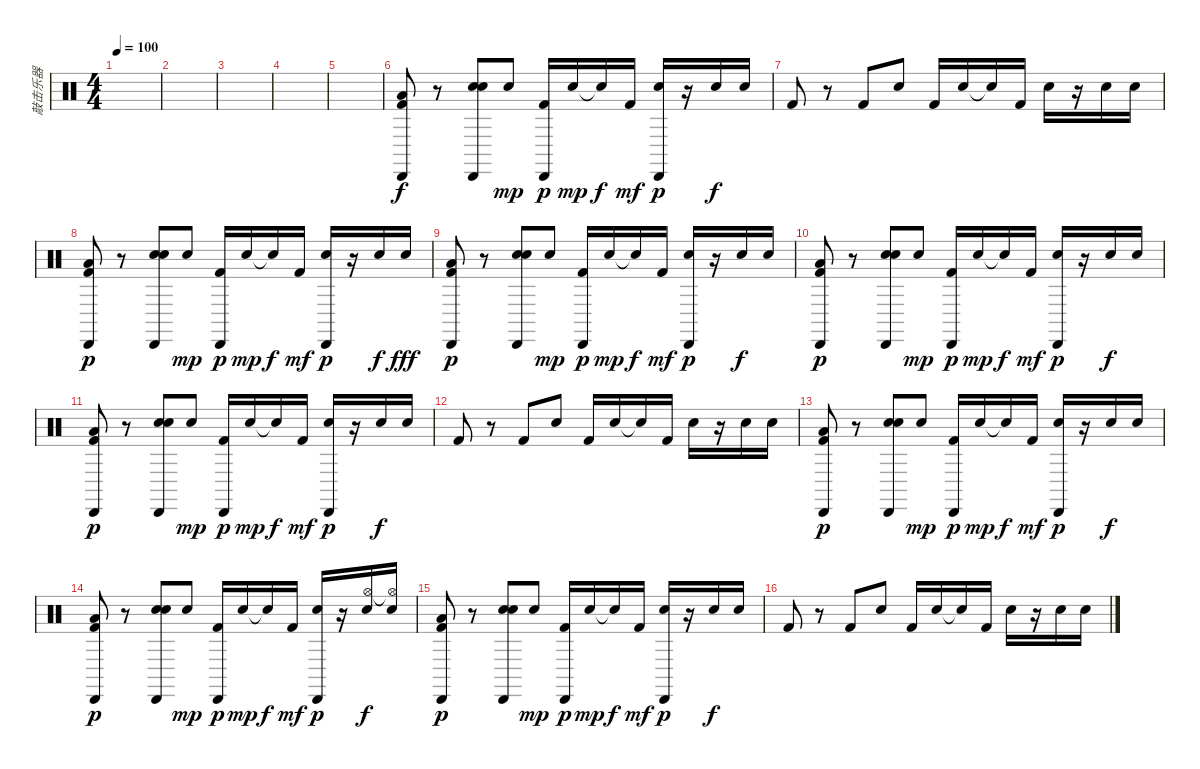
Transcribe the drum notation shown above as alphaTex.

\track ("敲击乐器" "敲击乐器") {instrument percussion}
\staff {score}
\articulation defaults
\ts (4 4)
\tempo 100
\clef neutral
\ks c
|
|
|
|
|
("Kick (hit) 2" "Low Floor Tom (hit)" "Cabasa (hit)").8 r.8 ("Snare (hit) 2" "Electric Snare (hit)" "Cabasa (hit)").8 "Snare (hit) 2".8{dy mp} ("Kick (hit) 2" "Cabasa (hit)").16{dy p} "Snare (hit) 2".16{dy mp} "Snare (hit) 2"{t}.16{dy f} "Kick (hit) 2".16{dy mf} ("Snare (hit) 2" "Cabasa (hit)").16{dy p} r.16 "Electric Snare (hit)".16{dy f} "Snare (hit) 2".16 |
"Kick (hit) 2".8 r.8 "Kick (hit) 2".8 "Snare (hit) 2".8 "Kick (hit) 2".16 "Snare (hit) 2".16 "Snare (hit) 2"{t}.16 "Kick (hit) 2".16 "Snare (hit) 2".16 r.16 "Electric Snare (hit)".16 "Snare (hit) 2".16 |
("Kick (hit) 2" "Low Floor Tom (hit)" "Cabasa (hit)").8{dy p} r.8 ("Snare (hit) 2" "Electric Snare (hit)" "Cabasa (hit)").8 "Snare (hit) 2".8{dy mp} ("Kick (hit) 2" "Cabasa (hit)").16{dy p} "Snare (hit) 2".16{dy mp} "Snare (hit) 2"{t}.16{dy f} "Kick (hit) 2".16{dy mf} ("Snare (hit) 2" "Cabasa (hit)").16{dy p} r.16 "Electric Snare (hit)".16{dy f} "Snare (hit) 2".16{dy fff} |
("Kick (hit) 2" "Low Floor Tom (hit)" "Cabasa (hit)").8{dy p} r.8 ("Snare (hit) 2" "Electric Snare (hit)" "Cabasa (hit)").8 "Snare (hit) 2".8{dy mp} ("Kick (hit) 2" "Cabasa (hit)").16{dy p} "Snare (hit) 2".16{dy mp} "Snare (hit) 2"{t}.16{dy f} "Kick (hit) 2".16{dy mf} ("Snare (hit) 2" "Cabasa (hit)").16{dy p} r.16 "Electric Snare (hit)".16{dy f} "Snare (hit) 2".16 |
("Kick (hit) 2" "Low Floor Tom (hit)" "Cabasa (hit)").8{dy p} r.8 ("Snare (hit) 2" "Electric Snare (hit)" "Cabasa (hit)").8 "Snare (hit) 2".8{dy mp} ("Kick (hit) 2" "Cabasa (hit)").16{dy p} "Snare (hit) 2".16{dy mp} "Snare (hit) 2"{t}.16{dy f} "Kick (hit) 2".16{dy mf} ("Snare (hit) 2" "Cabasa (hit)").16{dy p} r.16 "Electric Snare (hit)".16{dy f} "Snare (hit) 2".16 |
("Kick (hit) 2" "Low Floor Tom (hit)" "Cabasa (hit)").8{dy p} r.8 ("Snare (hit) 2" "Electric Snare (hit)" "Cabasa (hit)").8 "Snare (hit) 2".8{dy mp} ("Kick (hit) 2" "Cabasa (hit)").16{dy p} "Snare (hit) 2".16{dy mp} "Snare (hit) 2"{t}.16{dy f} "Kick (hit) 2".16{dy mf} ("Snare (hit) 2" "Cabasa (hit)").16{dy p} r.16 "Electric Snare (hit)".16{dy f} "Snare (hit) 2".16 |
"Kick (hit) 2".8 r.8 "Kick (hit) 2".8 "Snare (hit) 2".8 "Kick (hit) 2".16 "Snare (hit) 2".16 "Snare (hit) 2"{t}.16 "Kick (hit) 2".16 "Snare (hit) 2".16 r.16 "Electric Snare (hit)".16 "Snare (hit) 2".16 |
("Kick (hit) 2" "Low Floor Tom (hit)" "Cabasa (hit)").8{dy p} r.8 ("Snare (hit) 2" "Electric Snare (hit)" "Cabasa (hit)").8 "Snare (hit) 2".8{dy mp} ("Kick (hit) 2" "Cabasa (hit)").16{dy p} "Snare (hit) 2".16{dy mp} "Snare (hit) 2"{t}.16{dy f} "Kick (hit) 2".16{dy mf} ("Snare (hit) 2" "Cabasa (hit)").16{dy p} r.16 "Electric Snare (hit)".16{dy f} "Snare (hit) 2".16 |
("Kick (hit) 2" "Low Floor Tom (hit)" "Cabasa (hit)").8{dy p} r.8 ("Snare (hit) 2" "Electric Snare (hit)" "Cabasa (hit)").8 "Snare (hit) 2".8{dy mp} ("Kick (hit) 2" "Cabasa (hit)").16{dy p} "Snare (hit) 2".16{dy mp} "Snare (hit) 2"{t}.16{dy f} "Kick (hit) 2".16{dy mf} ("Snare (hit) 2" "Cabasa (hit)").16{dy p} r.16 ("Electric Snare (hit)" "Hi-Hat (open)").16{dy f} ("Snare (hit) 2" "Hi-Hat (open)"{t}).16 |
("Kick (hit) 2" "Low Floor Tom (hit)" "Cabasa (hit)").8{dy p} r.8 ("Snare (hit) 2" "Electric Snare (hit)" "Cabasa (hit)").8 "Snare (hit) 2".8{dy mp} ("Kick (hit) 2" "Cabasa (hit)").16{dy p} "Snare (hit) 2".16{dy mp} "Snare (hit) 2"{t}.16{dy f} "Kick (hit) 2".16{dy mf} ("Snare (hit) 2" "Cabasa (hit)").16{dy p} r.16 "Electric Snare (hit)".16{dy f} "Snare (hit) 2".16 |
"Kick (hit) 2".8 r.8 "Kick (hit) 2".8 "Snare (hit) 2".8 "Kick (hit) 2".16 "Snare (hit) 2".16 "Snare (hit) 2"{t}.16 "Kick (hit) 2".16 "Snare (hit) 2".16 r.16 "Electric Snare (hit)".16 "Snare (hit) 2".16
